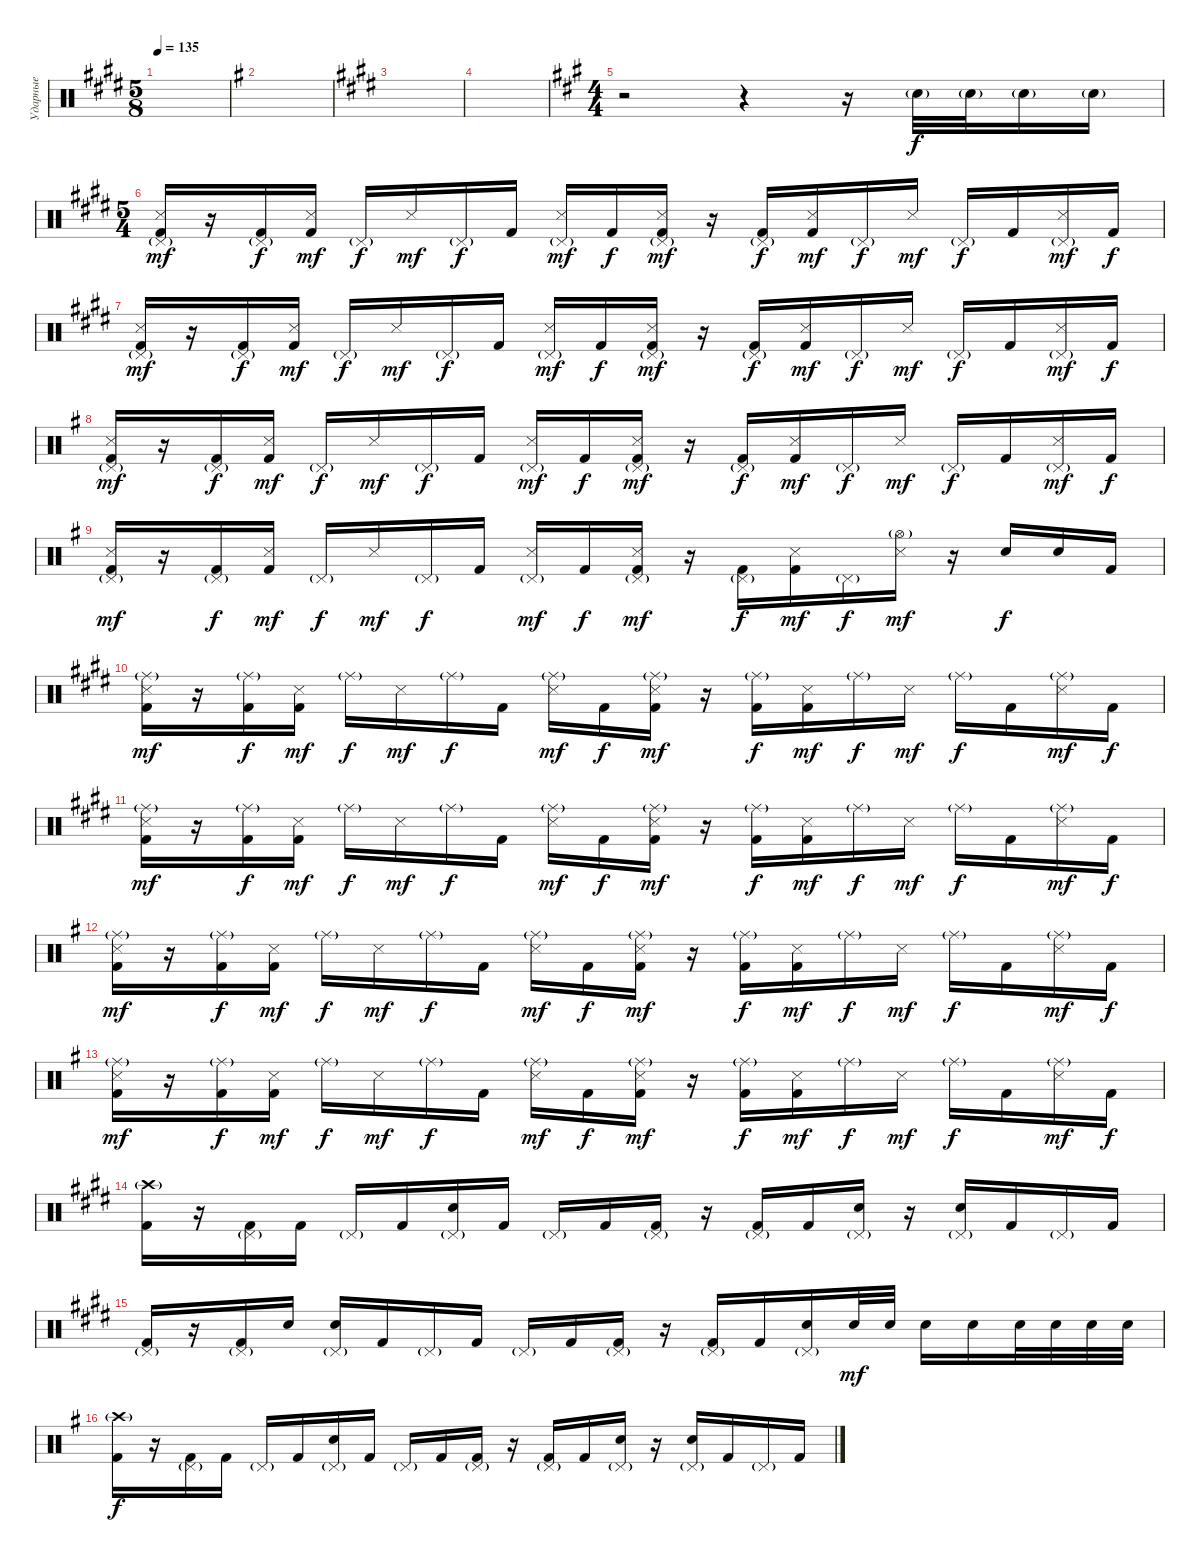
\track ("Ударные" "Ударные") {instrument percussion}
\staff {score}
\articulation defaults
\ts (5 8)
\tempo 135
\clef neutral
\ks e
|
\ks g
|
\ks e
|
|
\ts (4 4)
\ks a
r.2 r.4 r.16 "Electric Snare (hit)"{g}.32 "Electric Snare (hit)"{g}.32 "Electric Snare (hit)"{g}.16 "Electric Snare (hit)"{g}.16 |
\ts (5 4)
\ks e
("Pedal Hi-Hat (hit)"{g} "Snare (side stick) 3" "Kick (hit) 2").16{dy mf} r.16 ("Pedal Hi-Hat (hit)"{g} "Kick (hit) 2").16{dy f} ("Snare (side stick) 3" "Kick (hit) 2").16{dy mf} "Pedal Hi-Hat (hit)"{g}.16{dy f} "Snare (side stick) 3".16{dy mf} "Pedal Hi-Hat (hit)"{g}.16{dy f} "Kick (hit) 2".16 ("Pedal Hi-Hat (hit)"{g} "Snare (side stick) 3").16{dy mf} "Kick (hit) 2".16{dy f} ("Pedal Hi-Hat (hit)"{g} "Snare (side stick) 3" "Kick (hit) 2").16{dy mf} r.16 ("Pedal Hi-Hat (hit)"{g} "Kick (hit) 2").16{dy f} ("Snare (side stick) 3" "Kick (hit) 2").16{dy mf} "Pedal Hi-Hat (hit)"{g}.16{dy f} "Snare (side stick) 3".16{dy mf} "Pedal Hi-Hat (hit)"{g}.16{dy f} "Kick (hit) 2".16 ("Pedal Hi-Hat (hit)"{g} "Snare (side stick) 3").16{dy mf} "Kick (hit) 2".16{dy f} |
("Pedal Hi-Hat (hit)"{g} "Snare (side stick) 3" "Kick (hit) 2").16{dy mf} r.16 ("Pedal Hi-Hat (hit)"{g} "Kick (hit) 2").16{dy f} ("Snare (side stick) 3" "Kick (hit) 2").16{dy mf} "Pedal Hi-Hat (hit)"{g}.16{dy f} "Snare (side stick) 3".16{dy mf} "Pedal Hi-Hat (hit)"{g}.16{dy f} "Kick (hit) 2".16 ("Pedal Hi-Hat (hit)"{g} "Snare (side stick) 3").16{dy mf} "Kick (hit) 2".16{dy f} ("Pedal Hi-Hat (hit)"{g} "Snare (side stick) 3" "Kick (hit) 2").16{dy mf} r.16 ("Pedal Hi-Hat (hit)"{g} "Kick (hit) 2").16{dy f} ("Snare (side stick) 3" "Kick (hit) 2").16{dy mf} "Pedal Hi-Hat (hit)"{g}.16{dy f} "Snare (side stick) 3".16{dy mf} "Pedal Hi-Hat (hit)"{g}.16{dy f} "Kick (hit) 2".16 ("Pedal Hi-Hat (hit)"{g} "Snare (side stick) 3").16{dy mf} "Kick (hit) 2".16{dy f} |
\ks g
("Pedal Hi-Hat (hit)"{g} "Snare (side stick) 3" "Kick (hit) 2").16{dy mf} r.16 ("Pedal Hi-Hat (hit)"{g} "Kick (hit) 2").16{dy f} ("Snare (side stick) 3" "Kick (hit) 2").16{dy mf} "Pedal Hi-Hat (hit)"{g}.16{dy f} "Snare (side stick) 3".16{dy mf} "Pedal Hi-Hat (hit)"{g}.16{dy f} "Kick (hit) 2".16 ("Pedal Hi-Hat (hit)"{g} "Snare (side stick) 3").16{dy mf} "Kick (hit) 2".16{dy f} ("Pedal Hi-Hat (hit)"{g} "Snare (side stick) 3" "Kick (hit) 2").16{dy mf} r.16 ("Pedal Hi-Hat (hit)"{g} "Kick (hit) 2").16{dy f} ("Snare (side stick) 3" "Kick (hit) 2").16{dy mf} "Pedal Hi-Hat (hit)"{g}.16{dy f} "Snare (side stick) 3".16{dy mf} "Pedal Hi-Hat (hit)"{g}.16{dy f} "Kick (hit) 2".16 ("Pedal Hi-Hat (hit)"{g} "Snare (side stick) 3").16{dy mf} "Kick (hit) 2".16{dy f} |
("Pedal Hi-Hat (hit)"{g} "Snare (side stick) 3" "Kick (hit) 2").16{dy mf} r.16 ("Pedal Hi-Hat (hit)"{g} "Kick (hit) 2").16{dy f} ("Snare (side stick) 3" "Kick (hit) 2").16{dy mf} "Pedal Hi-Hat (hit)"{g}.16{dy f} "Snare (side stick) 3".16{dy mf} "Pedal Hi-Hat (hit)"{g}.16{dy f} "Kick (hit) 2".16 ("Pedal Hi-Hat (hit)"{g} "Snare (side stick) 3").16{dy mf} "Kick (hit) 2".16{dy f} ("Pedal Hi-Hat (hit)"{g} "Snare (side stick) 3" "Kick (hit) 2").16{dy mf} r.16 ("Pedal Hi-Hat (hit)"{g} "Kick (hit) 2").16{dy f} ("Snare (side stick) 3" "Kick (hit) 2").16{dy mf} "Pedal Hi-Hat (hit)"{g}.16{dy f} ("Hi-Hat (open)"{g} "Snare (side stick) 3").16{dy mf} r.16 "Electric Snare (hit)".16{dy f} "Electric Snare (hit)".16 "Kick (hit) 2".16 |
\ks e
("Ride (middle)"{g} "Snare (side stick) 3" "Kick (hit) 2").16{dy mf} r.16 ("Ride (middle)"{g} "Kick (hit) 2").16{dy f} ("Snare (side stick) 3" "Kick (hit) 2").16{dy mf} "Ride (middle)"{g}.16{dy f} "Snare (side stick) 3".16{dy mf} "Ride (middle)"{g}.16{dy f} "Kick (hit) 2".16 ("Ride (middle)"{g} "Snare (side stick) 3").16{dy mf} "Kick (hit) 2".16{dy f} ("Ride (middle)"{g} "Snare (side stick) 3" "Kick (hit) 2").16{dy mf} r.16 ("Ride (middle)"{g} "Kick (hit) 2").16{dy f} ("Snare (side stick) 3" "Kick (hit) 2").16{dy mf} "Ride (middle)"{g}.16{dy f} "Snare (side stick) 3".16{dy mf} "Ride (middle)"{g}.16{dy f} "Kick (hit) 2".16 ("Ride (middle)"{g} "Snare (side stick) 3").16{dy mf} "Kick (hit) 2".16{dy f} |
("Ride (middle)"{g} "Snare (side stick) 3" "Kick (hit) 2").16{dy mf} r.16 ("Ride (middle)"{g} "Kick (hit) 2").16{dy f} ("Snare (side stick) 3" "Kick (hit) 2").16{dy mf} "Ride (middle)"{g}.16{dy f} "Snare (side stick) 3".16{dy mf} "Ride (middle)"{g}.16{dy f} "Kick (hit) 2".16 ("Ride (middle)"{g} "Snare (side stick) 3").16{dy mf} "Kick (hit) 2".16{dy f} ("Ride (middle)"{g} "Snare (side stick) 3" "Kick (hit) 2").16{dy mf} r.16 ("Ride (middle)"{g} "Kick (hit) 2").16{dy f} ("Snare (side stick) 3" "Kick (hit) 2").16{dy mf} "Ride (middle)"{g}.16{dy f} "Snare (side stick) 3".16{dy mf} "Ride (middle)"{g}.16{dy f} "Kick (hit) 2".16 ("Ride (middle)"{g} "Snare (side stick) 3").16{dy mf} "Kick (hit) 2".16{dy f} |
\ks g
("Ride (middle)"{g} "Snare (side stick) 3" "Kick (hit) 2").16{dy mf} r.16 ("Ride (middle)"{g} "Kick (hit) 2").16{dy f} ("Snare (side stick) 3" "Kick (hit) 2").16{dy mf} "Ride (middle)"{g}.16{dy f} "Snare (side stick) 3".16{dy mf} "Ride (middle)"{g}.16{dy f} "Kick (hit) 2".16 ("Ride (middle)"{g} "Snare (side stick) 3").16{dy mf} "Kick (hit) 2".16{dy f} ("Ride (middle)"{g} "Snare (side stick) 3" "Kick (hit) 2").16{dy mf} r.16 ("Ride (middle)"{g} "Kick (hit) 2").16{dy f} ("Snare (side stick) 3" "Kick (hit) 2").16{dy mf} "Ride (middle)"{g}.16{dy f} "Snare (side stick) 3".16{dy mf} "Ride (middle)"{g}.16{dy f} "Kick (hit) 2".16 ("Ride (middle)"{g} "Snare (side stick) 3").16{dy mf} "Kick (hit) 2".16{dy f} |
("Ride (middle)"{g} "Snare (side stick) 3" "Kick (hit) 2").16{dy mf} r.16 ("Ride (middle)"{g} "Kick (hit) 2").16{dy f} ("Snare (side stick) 3" "Kick (hit) 2").16{dy mf} "Ride (middle)"{g}.16{dy f} "Snare (side stick) 3".16{dy mf} "Ride (middle)"{g}.16{dy f} "Kick (hit) 2".16 ("Ride (middle)"{g} "Snare (side stick) 3").16{dy mf} "Kick (hit) 2".16{dy f} ("Ride (middle)"{g} "Snare (side stick) 3" "Kick (hit) 2").16{dy mf} r.16 ("Ride (middle)"{g} "Kick (hit) 2").16{dy f} ("Snare (side stick) 3" "Kick (hit) 2").16{dy mf} "Ride (middle)"{g}.16{dy f} "Snare (side stick) 3".16{dy mf} "Ride (middle)"{g}.16{dy f} "Kick (hit) 2".16 ("Ride (middle)"{g} "Snare (side stick) 3").16{dy mf} "Kick (hit) 2".16{dy f} |
\ks e
("Crash high (hit)"{g} "Kick (hit) 2").16 r.16 ("Pedal Hi-Hat (hit)"{g} "Kick (hit) 2").16 "Kick (hit) 2".16 "Pedal Hi-Hat (hit)"{g}.16 "Kick (hit) 2".16 ("Pedal Hi-Hat (hit)"{g} "Electric Snare (hit)").16 "Kick (hit) 2".16 "Pedal Hi-Hat (hit)"{g}.16 "Kick (hit) 2".16 ("Pedal Hi-Hat (hit)"{g} "Kick (hit) 2").16 r.16 ("Pedal Hi-Hat (hit)"{g} "Kick (hit) 2").16 "Kick (hit) 2".16 ("Pedal Hi-Hat (hit)"{g} "Electric Snare (hit)").16 r.16 ("Pedal Hi-Hat (hit)"{g} "Electric Snare (hit)").16 "Kick (hit) 2".16 "Pedal Hi-Hat (hit)"{g}.16 "Kick (hit) 2".16 |
("Pedal Hi-Hat (hit)"{g} "Kick (hit) 2").16 r.16 ("Pedal Hi-Hat (hit)"{g} "Kick (hit) 2").16 "Electric Snare (hit)".16 ("Pedal Hi-Hat (hit)"{g} "Electric Snare (hit)").16 "Kick (hit) 2".16 "Pedal Hi-Hat (hit)"{g}.16 "Kick (hit) 2".16 "Pedal Hi-Hat (hit)"{g}.16 "Kick (hit) 2".16 ("Pedal Hi-Hat (hit)"{g} "Kick (hit) 2").16 r.16 ("Pedal Hi-Hat (hit)"{g} "Kick (hit) 2").16 "Kick (hit) 2".16 ("Pedal Hi-Hat (hit)"{g} "Electric Snare (hit)").16 "Electric Snare (hit)".32{dy mf} "Electric Snare (hit)".32 "Electric Snare (hit)".16 "Electric Snare (hit)".16 "Electric Snare (hit)".32 "Electric Snare (hit)".32 "Electric Snare (hit)".32 "Electric Snare (hit)".32 |
\ks g
("Crash high (hit)"{g} "Kick (hit) 2").16{dy f} r.16 ("Pedal Hi-Hat (hit)"{g} "Kick (hit) 2").16 "Kick (hit) 2".16 "Pedal Hi-Hat (hit)"{g}.16 "Kick (hit) 2".16 ("Pedal Hi-Hat (hit)"{g} "Electric Snare (hit)").16 "Kick (hit) 2".16 "Pedal Hi-Hat (hit)"{g}.16 "Kick (hit) 2".16 ("Pedal Hi-Hat (hit)"{g} "Kick (hit) 2").16 r.16 ("Pedal Hi-Hat (hit)"{g} "Kick (hit) 2").16 "Kick (hit) 2".16 ("Pedal Hi-Hat (hit)"{g} "Electric Snare (hit)").16 r.16 ("Pedal Hi-Hat (hit)"{g} "Electric Snare (hit)").16 "Kick (hit) 2".16 "Pedal Hi-Hat (hit)"{g}.16 "Kick (hit) 2".16
